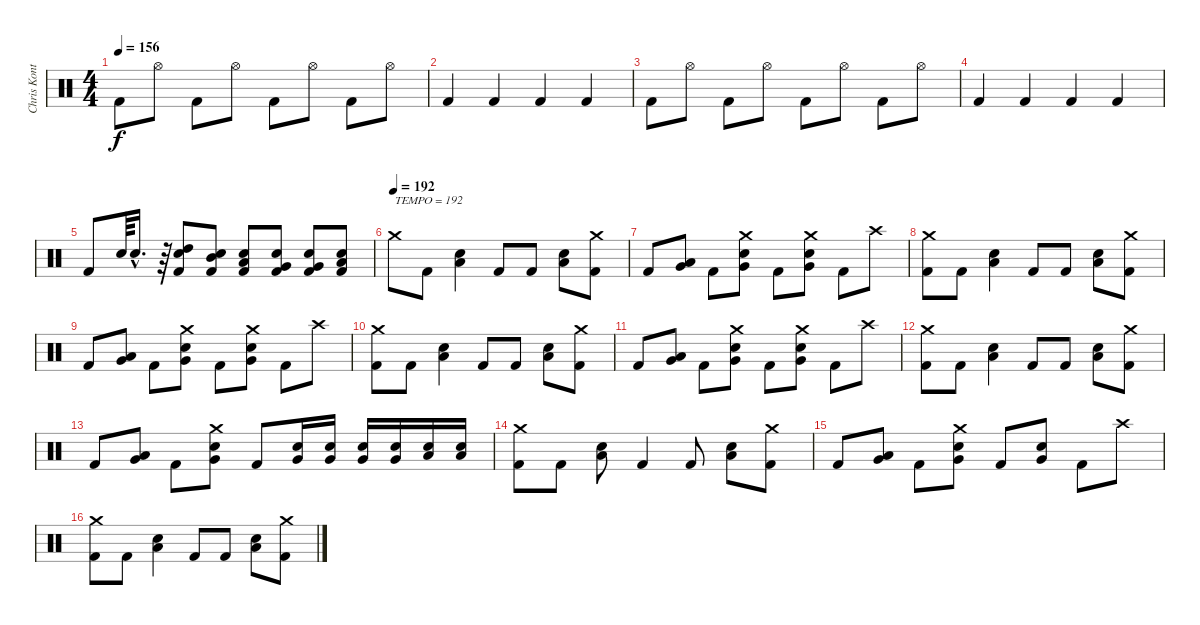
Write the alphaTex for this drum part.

\track ("Chris Kontos" "Chris Kont") {instrument percussion}
\staff {score}
\articulation defaults
\ts (4 4)
\tempo 156
\clef neutral
\ks c "Kick (hit) 2".8{dy f} "Hi-Hat (open)".8 "Kick (hit) 2".8 "Hi-Hat (open)".8 "Kick (hit) 2".8 "Hi-Hat (open)".8 "Kick (hit) 2".8 "Hi-Hat (open)".8
|
"Kick (hit) 2".4 "Kick (hit) 2".4 "Kick (hit) 2".4 "Kick (hit) 2".4 |
"Kick (hit) 2".8 "Hi-Hat (open)".8 "Kick (hit) 2".8 "Hi-Hat (open)".8 "Kick (hit) 2".8 "Hi-Hat (open)".8 "Kick (hit) 2".8 "Hi-Hat (open)".8 |
"Kick (hit) 2".4 "Kick (hit) 2".4 "Kick (hit) 2".4 "Kick (hit) 2".4 |
"Kick (hit) 2".8 "Electric Snare (hit)".64 "Snare (hit) 2"{hac}.16{d} r.64 ("High Tom (hit)" "Snare (hit) 2" "Kick (hit) 2").8 ("Mid Tom (hit)" "Snare (hit) 2" "Kick (hit) 2").8 ("Low Tom (hit)" "Snare (hit) 2" "Kick (hit) 2").8 ("Very Low Tom (hit)" "Snare (hit) 2" "Kick (hit) 2").8 ("Very Low Tom (hit)" "Snare (hit) 2" "Kick (hit) 2").8 ("Low Floor Tom (hit)" "Snare (hit) 2" "Kick (hit) 2").8 |
\tempo (192)
"Crash medium (hit)".8{txt "TEMPO = 192"} "Kick (hit) 2".8 ("Low Floor Tom (hit)" "Electric Snare (hit)").4 "Kick (hit) 2".8 "Kick (hit) 2".8 ("Low Floor Tom (hit)" "Electric Snare (hit)").8 ("Crash medium (hit)" "Kick (hit) 2").8 |
"Kick (hit) 2".8 ("Very Low Tom (hit)" "Low Floor Tom (hit)").8 "Kick (hit) 2".8 ("Very Low Tom (hit)" "Crash medium (hit)" "Electric Snare (hit)").8 "Kick (hit) 2".8 ("Very Low Tom (hit)" "Crash medium (hit)" "Electric Snare (hit)").8 "Kick (hit) 2".8 "Crash high (hit)".8 |
("Crash medium (hit)" "Kick (hit) 2").8 "Kick (hit) 2".8 ("Low Floor Tom (hit)" "Electric Snare (hit)").4 "Kick (hit) 2".8 "Kick (hit) 2".8 ("Low Floor Tom (hit)" "Electric Snare (hit)").8 ("Crash medium (hit)" "Kick (hit) 2").8 |
"Kick (hit) 2".8 ("Very Low Tom (hit)" "Low Floor Tom (hit)").8 "Kick (hit) 2".8 ("Very Low Tom (hit)" "Crash medium (hit)" "Electric Snare (hit)").8 "Kick (hit) 2".8 ("Very Low Tom (hit)" "Crash medium (hit)" "Electric Snare (hit)").8 "Kick (hit) 2".8 "Crash high (hit)".8 |
("Crash medium (hit)" "Kick (hit) 2").8 "Kick (hit) 2".8 ("Low Floor Tom (hit)" "Electric Snare (hit)").4 "Kick (hit) 2".8 "Kick (hit) 2".8 ("Low Floor Tom (hit)" "Electric Snare (hit)").8 ("Crash medium (hit)" "Kick (hit) 2").8 |
"Kick (hit) 2".8 ("Very Low Tom (hit)" "Low Floor Tom (hit)").8 "Kick (hit) 2".8 ("Very Low Tom (hit)" "Crash medium (hit)" "Electric Snare (hit)").8 "Kick (hit) 2".8 ("Very Low Tom (hit)" "Crash medium (hit)" "Electric Snare (hit)").8 "Kick (hit) 2".8 "Crash high (hit)".8 |
("Crash medium (hit)" "Kick (hit) 2").8 "Kick (hit) 2".8 ("Low Floor Tom (hit)" "Electric Snare (hit)").4 "Kick (hit) 2".8 "Kick (hit) 2".8 ("Low Floor Tom (hit)" "Electric Snare (hit)").8 ("Crash medium (hit)" "Kick (hit) 2").8 |
"Kick (hit) 2".8 ("Very Low Tom (hit)" "Low Floor Tom (hit)").8 "Kick (hit) 2".8 ("Very Low Tom (hit)" "Crash medium (hit)" "Electric Snare (hit)").8 "Kick (hit) 2".8 ("Very Low Tom (hit)" "Electric Snare (hit)").16 ("Very Low Tom (hit)" "Electric Snare (hit)").16 ("Very Low Tom (hit)" "Electric Snare (hit)").16 ("Very Low Tom (hit)" "Electric Snare (hit)").16 ("Low Floor Tom (hit)" "Electric Snare (hit)").16 ("Low Floor Tom (hit)" "Electric Snare (hit)").16 |
("Crash medium (hit)" "Kick (hit) 2").8 "Kick (hit) 2".8 ("Low Floor Tom (hit)" "Electric Snare (hit)").8 "Kick (hit) 2".4 "Kick (hit) 2".8 ("Low Floor Tom (hit)" "Electric Snare (hit)").8 ("Crash medium (hit)" "Kick (hit) 2").8 |
"Kick (hit) 2".8 ("Very Low Tom (hit)" "Low Floor Tom (hit)").8 "Kick (hit) 2".8 ("Very Low Tom (hit)" "Crash medium (hit)" "Electric Snare (hit)").8 "Kick (hit) 2".8 ("Very Low Tom (hit)" "Electric Snare (hit)").8 "Kick (hit) 2".8 "Crash high (hit)".8 |
("Crash medium (hit)" "Kick (hit) 2").8 "Kick (hit) 2".8 ("Low Floor Tom (hit)" "Electric Snare (hit)").4 "Kick (hit) 2".8 "Kick (hit) 2".8 ("Low Floor Tom (hit)" "Electric Snare (hit)").8 ("Crash medium (hit)" "Kick (hit) 2").8
